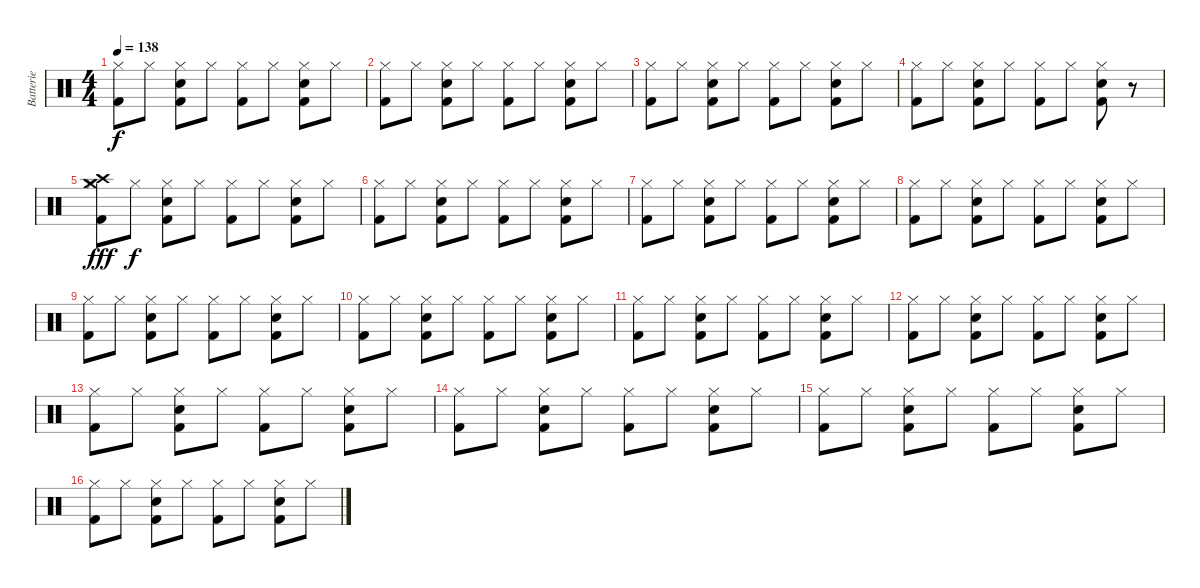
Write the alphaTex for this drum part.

\track ("Batterie" "Batterie") {instrument percussion}
\staff {score}
\articulation defaults
\ts (4 4)
\tempo 138
\clef neutral
\ks c
("Hi-Hat (closed)" "Kick (hit) 2").8{dy f} "Hi-Hat (closed)".8 ("Hi-Hat (closed)" "Electric Snare (hit)" "Kick (hit) 2").8 "Hi-Hat (closed)".8 ("Hi-Hat (closed)" "Kick (hit) 2").8 "Hi-Hat (closed)".8 ("Hi-Hat (closed)" "Electric Snare (hit)" "Kick (hit) 2").8 "Hi-Hat (closed)".8 |
("Hi-Hat (closed)" "Kick (hit) 2").8 "Hi-Hat (closed)".8 ("Hi-Hat (closed)" "Electric Snare (hit)" "Kick (hit) 2").8 "Hi-Hat (closed)".8 ("Hi-Hat (closed)" "Kick (hit) 2").8 "Hi-Hat (closed)".8 ("Hi-Hat (closed)" "Electric Snare (hit)" "Kick (hit) 2").8 "Hi-Hat (closed)".8 |
("Hi-Hat (closed)" "Kick (hit) 2").8 "Hi-Hat (closed)".8 ("Hi-Hat (closed)" "Electric Snare (hit)" "Kick (hit) 2").8 "Hi-Hat (closed)".8 ("Hi-Hat (closed)" "Kick (hit) 2").8 "Hi-Hat (closed)".8 ("Hi-Hat (closed)" "Electric Snare (hit)" "Kick (hit) 2").8 "Hi-Hat (closed)".8 |
("Hi-Hat (closed)" "Kick (hit) 2").8 "Hi-Hat (closed)".8 ("Hi-Hat (closed)" "Electric Snare (hit)" "Kick (hit) 2").8 "Hi-Hat (closed)".8 ("Hi-Hat (closed)" "Kick (hit) 2").8 "Hi-Hat (closed)".8 ("Hi-Hat (closed)" "Electric Snare (hit)" "Kick (hit) 2").8 r.8 |
("Crash medium (hit)" "Crash high (hit)" "Hi-Hat (closed)" "Kick (hit) 2").8{dy fff} "Hi-Hat (closed)".8{dy f} ("Hi-Hat (closed)" "Electric Snare (hit)" "Kick (hit) 2").8 "Hi-Hat (closed)".8 ("Hi-Hat (closed)" "Kick (hit) 2").8 "Hi-Hat (closed)".8 ("Hi-Hat (closed)" "Electric Snare (hit)" "Kick (hit) 2").8 "Hi-Hat (closed)".8 |
("Hi-Hat (closed)" "Kick (hit) 2").8 "Hi-Hat (closed)".8 ("Hi-Hat (closed)" "Electric Snare (hit)" "Kick (hit) 2").8 "Hi-Hat (closed)".8 ("Hi-Hat (closed)" "Kick (hit) 2").8 "Hi-Hat (closed)".8 ("Hi-Hat (closed)" "Electric Snare (hit)" "Kick (hit) 2").8 "Hi-Hat (closed)".8 |
("Hi-Hat (closed)" "Kick (hit) 2").8 "Hi-Hat (closed)".8 ("Hi-Hat (closed)" "Electric Snare (hit)" "Kick (hit) 2").8 "Hi-Hat (closed)".8 ("Hi-Hat (closed)" "Kick (hit) 2").8 "Hi-Hat (closed)".8 ("Hi-Hat (closed)" "Electric Snare (hit)" "Kick (hit) 2").8 "Hi-Hat (closed)".8 |
("Hi-Hat (closed)" "Kick (hit) 2").8 "Hi-Hat (closed)".8 ("Hi-Hat (closed)" "Electric Snare (hit)" "Kick (hit) 2").8 "Hi-Hat (closed)".8 ("Hi-Hat (closed)" "Kick (hit) 2").8 "Hi-Hat (closed)".8 ("Hi-Hat (closed)" "Electric Snare (hit)" "Kick (hit) 2").8 "Hi-Hat (closed)".8 |
("Hi-Hat (closed)" "Kick (hit) 2").8 "Hi-Hat (closed)".8 ("Hi-Hat (closed)" "Electric Snare (hit)" "Kick (hit) 2").8 "Hi-Hat (closed)".8 ("Hi-Hat (closed)" "Kick (hit) 2").8 "Hi-Hat (closed)".8 ("Hi-Hat (closed)" "Electric Snare (hit)" "Kick (hit) 2").8 "Hi-Hat (closed)".8 |
("Hi-Hat (closed)" "Kick (hit) 2").8 "Hi-Hat (closed)".8 ("Hi-Hat (closed)" "Electric Snare (hit)" "Kick (hit) 2").8 "Hi-Hat (closed)".8 ("Hi-Hat (closed)" "Kick (hit) 2").8 "Hi-Hat (closed)".8 ("Hi-Hat (closed)" "Electric Snare (hit)" "Kick (hit) 2").8 "Hi-Hat (closed)".8 |
("Hi-Hat (closed)" "Kick (hit) 2").8 "Hi-Hat (closed)".8 ("Hi-Hat (closed)" "Electric Snare (hit)" "Kick (hit) 2").8 "Hi-Hat (closed)".8 ("Hi-Hat (closed)" "Kick (hit) 2").8 "Hi-Hat (closed)".8 ("Hi-Hat (closed)" "Electric Snare (hit)" "Kick (hit) 2").8 "Hi-Hat (closed)".8 |
("Hi-Hat (closed)" "Kick (hit) 2").8 "Hi-Hat (closed)".8 ("Hi-Hat (closed)" "Electric Snare (hit)" "Kick (hit) 2").8 "Hi-Hat (closed)".8 ("Hi-Hat (closed)" "Kick (hit) 2").8 "Hi-Hat (closed)".8 ("Hi-Hat (closed)" "Electric Snare (hit)" "Kick (hit) 2").8 "Hi-Hat (closed)".8 |
("Hi-Hat (closed)" "Kick (hit) 2").8 "Hi-Hat (closed)".8 ("Hi-Hat (closed)" "Electric Snare (hit)" "Kick (hit) 2").8 "Hi-Hat (closed)".8 ("Hi-Hat (closed)" "Kick (hit) 2").8 "Hi-Hat (closed)".8 ("Hi-Hat (closed)" "Electric Snare (hit)" "Kick (hit) 2").8 "Hi-Hat (closed)".8 |
("Hi-Hat (closed)" "Kick (hit) 2").8 "Hi-Hat (closed)".8 ("Hi-Hat (closed)" "Electric Snare (hit)" "Kick (hit) 2").8 "Hi-Hat (closed)".8 ("Hi-Hat (closed)" "Kick (hit) 2").8 "Hi-Hat (closed)".8 ("Hi-Hat (closed)" "Electric Snare (hit)" "Kick (hit) 2").8 "Hi-Hat (closed)".8 |
("Hi-Hat (closed)" "Kick (hit) 2").8 "Hi-Hat (closed)".8 ("Hi-Hat (closed)" "Electric Snare (hit)" "Kick (hit) 2").8 "Hi-Hat (closed)".8 ("Hi-Hat (closed)" "Kick (hit) 2").8 "Hi-Hat (closed)".8 ("Hi-Hat (closed)" "Electric Snare (hit)" "Kick (hit) 2").8 "Hi-Hat (closed)".8 |
("Hi-Hat (closed)" "Kick (hit) 2").8 "Hi-Hat (closed)".8 ("Hi-Hat (closed)" "Electric Snare (hit)" "Kick (hit) 2").8 "Hi-Hat (closed)".8 ("Hi-Hat (closed)" "Kick (hit) 2").8 "Hi-Hat (closed)".8 ("Hi-Hat (closed)" "Electric Snare (hit)" "Kick (hit) 2").8 "Hi-Hat (closed)".8
